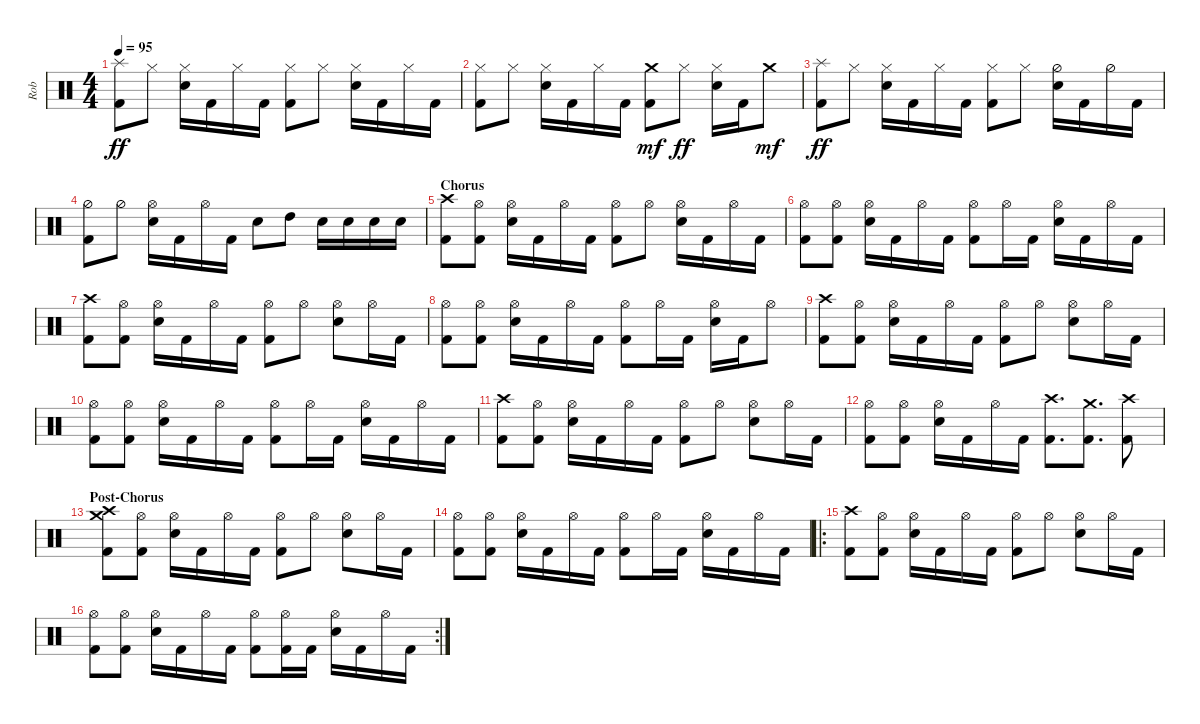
\track ("Rob" "Rob") {instrument percussion}
\staff {score}
\articulation defaults
\ts (4 4)
\tempo 95
\clef neutral
\ks c
("Splash (hit)" "Kick (hit) 2").8{dy ff} "Hi-Hat (closed)".8 ("Hi-Hat (closed)" "Snare (hit) 2").16 "Kick (hit) 2".16 "Hi-Hat (closed)".16 "Kick (hit) 2".16 ("Hi-Hat (closed)" "Kick (hit) 2").8 "Hi-Hat (closed)".8 ("Hi-Hat (closed)" "Snare (hit) 2").16 "Kick (hit) 2".16 "Hi-Hat (closed)".16 "Kick (hit) 2".16 |
("Hi-Hat (closed)" "Kick (hit) 2").8 "Hi-Hat (closed)".8 ("Hi-Hat (closed)" "Snare (hit) 2").16 "Kick (hit) 2".16 "Hi-Hat (closed)".16 "Kick (hit) 2".16 ("Crash medium (hit)" "Kick (hit) 2").8{dy mf} "Hi-Hat (closed)".8{dy ff} ("Hi-Hat (closed)" "Snare (hit) 2").16 "Kick (hit) 2".16 "Crash medium (hit)".8{dy mf} |
("Splash (hit)" "Kick (hit) 2").8{dy ff} "Hi-Hat (closed)".8 ("Hi-Hat (closed)" "Snare (hit) 2").16 "Kick (hit) 2".16 "Hi-Hat (closed)".16 "Kick (hit) 2".16 ("Hi-Hat (closed)" "Kick (hit) 2").8 "Hi-Hat (closed)".8 ("Hi-Hat (half)" "Snare (hit) 2").16 "Kick (hit) 2".16 "Hi-Hat (half)".16 "Kick (hit) 2".16 |
("Hi-Hat (half)" "Kick (hit) 2").8 "Hi-Hat (half)".8 ("Hi-Hat (open)" "Snare (hit) 2").16 "Kick (hit) 2".16 "Hi-Hat (open)".16 "Kick (hit) 2".16 "Snare (hit) 2".8 "High Tom (hit)".8 "Snare (hit) 2".16 "Snare (hit) 2".16 "Snare (hit) 2".16 "Snare (hit) 2".16 |
\section ("" "Chorus")
("Crash high (hit)" "Kick (hit) 2").8 ("Hi-Hat (open)" "Kick (hit) 2").8 ("Hi-Hat (open)" "Snare (hit) 2").16 "Kick (hit) 2".16 "Hi-Hat (open)".16 "Kick (hit) 2".16 ("Hi-Hat (open)" "Kick (hit) 2").8 "Hi-Hat (open)".8 ("Hi-Hat (open)" "Snare (hit) 2").16 "Kick (hit) 2".16 "Hi-Hat (open)".16 "Kick (hit) 2".16 |
("Hi-Hat (open)" "Kick (hit) 2").8 ("Hi-Hat (open)" "Kick (hit) 2").8 ("Hi-Hat (open)" "Snare (hit) 2").16 "Kick (hit) 2".16 "Hi-Hat (open)".16 "Kick (hit) 2".16 ("Hi-Hat (open)" "Kick (hit) 2").8 "Hi-Hat (open)".16 "Kick (hit) 2".16 ("Hi-Hat (open)" "Snare (hit) 2").16 "Kick (hit) 2".16 "Hi-Hat (open)".16 "Kick (hit) 2".16 |
("Crash high (hit)" "Kick (hit) 2").8 ("Hi-Hat (open)" "Kick (hit) 2").8 ("Hi-Hat (open)" "Snare (hit) 2").16 "Kick (hit) 2".16 "Hi-Hat (open)".16 "Kick (hit) 2".16 ("Hi-Hat (open)" "Kick (hit) 2").8 "Hi-Hat (open)".8 ("Hi-Hat (open)" "Snare (hit) 2").8 "Hi-Hat (open)".16 "Kick (hit) 2".16 |
("Hi-Hat (open)" "Kick (hit) 2").8 ("Hi-Hat (open)" "Kick (hit) 2").8 ("Hi-Hat (open)" "Snare (hit) 2").16 "Kick (hit) 2".16 "Hi-Hat (open)".16 "Kick (hit) 2".16 ("Hi-Hat (open)" "Kick (hit) 2").8 "Hi-Hat (open)".16 "Kick (hit) 2".16 ("Hi-Hat (open)" "Snare (hit) 2").16 "Kick (hit) 2".16 "Hi-Hat (open)".8 |
("Crash high (hit)" "Kick (hit) 2").8 ("Hi-Hat (open)" "Kick (hit) 2").8 ("Hi-Hat (open)" "Snare (hit) 2").16 "Kick (hit) 2".16 "Hi-Hat (open)".16 "Kick (hit) 2".16 ("Hi-Hat (open)" "Kick (hit) 2").8 "Hi-Hat (open)".8 ("Hi-Hat (open)" "Snare (hit) 2").8 "Hi-Hat (open)".16 "Kick (hit) 2".16 |
("Hi-Hat (open)" "Kick (hit) 2").8 ("Hi-Hat (open)" "Kick (hit) 2").8 ("Hi-Hat (open)" "Snare (hit) 2").16 "Kick (hit) 2".16 "Hi-Hat (open)".16 "Kick (hit) 2".16 ("Hi-Hat (open)" "Kick (hit) 2").8 "Hi-Hat (open)".16 "Kick (hit) 2".16 ("Hi-Hat (open)" "Snare (hit) 2").16 "Kick (hit) 2".16 "Hi-Hat (open)".16 "Kick (hit) 2".16 |
("Crash high (hit)" "Kick (hit) 2").8 ("Hi-Hat (open)" "Kick (hit) 2").8 ("Hi-Hat (open)" "Snare (hit) 2").16 "Kick (hit) 2".16 "Hi-Hat (open)".16 "Kick (hit) 2".16 ("Hi-Hat (open)" "Kick (hit) 2").8 "Hi-Hat (open)".8 ("Hi-Hat (open)" "Snare (hit) 2").8 "Hi-Hat (open)".16 "Kick (hit) 2".16 |
("Hi-Hat (open)" "Kick (hit) 2").8 ("Hi-Hat (open)" "Kick (hit) 2").8 ("Hi-Hat (open)" "Snare (hit) 2").16 "Kick (hit) 2".16 "Hi-Hat (open)".16 "Kick (hit) 2".16 ("Crash high (hit)" "Kick (hit) 2").8{d} ("Crash medium (hit)" "Kick (hit) 2").8{d} ("Crash high (hit)" "Kick (hit) 2").8 |
\section ("" "Post-Chorus")
("Crash high (hit)" "Crash medium (hit)" "Kick (hit) 2").8 ("Hi-Hat (open)" "Kick (hit) 2").8 ("Hi-Hat (open)" "Snare (hit) 2").16 "Kick (hit) 2".16 "Hi-Hat (open)".16 "Kick (hit) 2".16 ("Hi-Hat (open)" "Kick (hit) 2").8 "Hi-Hat (open)".8 ("Hi-Hat (open)" "Snare (hit) 2").8 "Hi-Hat (open)".16 "Kick (hit) 2".16 |
("Hi-Hat (open)" "Kick (hit) 2").8 ("Hi-Hat (open)" "Kick (hit) 2").8 ("Hi-Hat (open)" "Snare (hit) 2").16 "Kick (hit) 2".16 "Hi-Hat (open)".16 "Kick (hit) 2".16 ("Hi-Hat (open)" "Kick (hit) 2").8 "Hi-Hat (open)".16 "Kick (hit) 2".16 ("Hi-Hat (open)" "Snare (hit) 2").16 "Kick (hit) 2".16 "Hi-Hat (open)".16 "Kick (hit) 2".16 |
\ro
("Crash high (hit)" "Kick (hit) 2").8 ("Hi-Hat (open)" "Kick (hit) 2").8 ("Hi-Hat (open)" "Snare (hit) 2").16 "Kick (hit) 2".16 "Hi-Hat (open)".16 "Kick (hit) 2".16 ("Hi-Hat (open)" "Kick (hit) 2").8 "Hi-Hat (open)".8 ("Hi-Hat (open)" "Snare (hit) 2").8 "Hi-Hat (open)".16 "Kick (hit) 2".16 |
\rc 2
("Hi-Hat (open)" "Kick (hit) 2").8 ("Hi-Hat (open)" "Kick (hit) 2").8 ("Hi-Hat (open)" "Snare (hit) 2").16 "Kick (hit) 2".16 "Hi-Hat (open)".16 "Kick (hit) 2".16 ("Hi-Hat (open)" "Kick (hit) 2").8 ("Hi-Hat (open)" "Kick (hit) 2").16 "Kick (hit) 2".16 ("Hi-Hat (open)" "Snare (hit) 2").16 "Kick (hit) 2".16 "Hi-Hat (open)".16 "Kick (hit) 2".16
